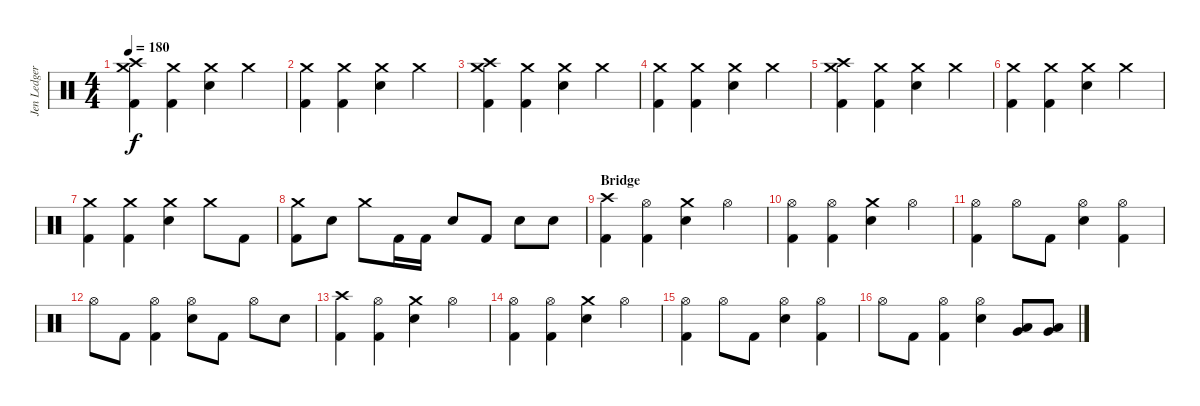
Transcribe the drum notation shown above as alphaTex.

\track ("Jen Ledger" "Jen Ledger") {instrument percussion}
\staff {score}
\articulation defaults
\ts (4 4)
\tempo 180
\clef neutral
\ks c
("Crash high (hit)" "Crash medium (hit)" "Kick (hit) 2").4{dy f} ("Crash medium (hit)" "Kick (hit) 2").4 ("Crash medium (hit)" "Electric Snare (hit)").4 "Crash medium (hit)".4 |
("Crash medium (hit)" "Kick (hit) 2").4 ("Crash medium (hit)" "Kick (hit) 2").4 ("Crash medium (hit)" "Electric Snare (hit)").4 "Crash medium (hit)".4 |
("Crash high (hit)" "Crash medium (hit)" "Kick (hit) 2").4 ("Crash medium (hit)" "Kick (hit) 2").4 ("Crash medium (hit)" "Electric Snare (hit)").4 "Crash medium (hit)".4 |
("Crash medium (hit)" "Kick (hit) 2").4 ("Crash medium (hit)" "Kick (hit) 2").4 ("Crash medium (hit)" "Electric Snare (hit)").4 "Crash medium (hit)".4 |
("Crash high (hit)" "Crash medium (hit)" "Kick (hit) 2").4 ("Crash medium (hit)" "Kick (hit) 2").4 ("Crash medium (hit)" "Electric Snare (hit)").4 "Crash medium (hit)".4 |
("Crash medium (hit)" "Kick (hit) 2").4 ("Crash medium (hit)" "Kick (hit) 2").4 ("Crash medium (hit)" "Electric Snare (hit)").4 "Crash medium (hit)".4 |
("Crash medium (hit)" "Kick (hit) 2").4 ("Crash medium (hit)" "Kick (hit) 2").4 ("Crash medium (hit)" "Electric Snare (hit)").4 "Crash medium (hit)".8 "Kick (hit) 2".8 |
("Crash medium (hit)" "Kick (hit) 2").8 "Electric Snare (hit)".8 "Crash medium (hit)".8 "Kick (hit) 2".16 "Kick (hit) 2".16 "Electric Snare (hit)".8 "Kick (hit) 2".8 "Electric Snare (hit)".8 "Electric Snare (hit)".8 |
\section ("" "Bridge")
("Crash high (hit)" "Kick (hit) 2").4 ("Hi-Hat (open)" "Kick (hit) 2").4 ("Crash medium (hit)" "Electric Snare (hit)").4 "Hi-Hat (open)".4 |
("Hi-Hat (open)" "Kick (hit) 2").4 ("Hi-Hat (open)" "Kick (hit) 2").4 ("Crash medium (hit)" "Electric Snare (hit)").4 "Hi-Hat (open)".4 |
("Hi-Hat (open)" "Kick (hit) 2").4 "Hi-Hat (open)".8 "Kick (hit) 2".8 ("Hi-Hat (open)" "Electric Snare (hit)").4 ("Hi-Hat (open)" "Kick (hit) 2").4 |
"Hi-Hat (open)".8 "Kick (hit) 2".8 ("Hi-Hat (open)" "Kick (hit) 2").4 ("Hi-Hat (open)" "Electric Snare (hit)").8 "Kick (hit) 2".8 "Hi-Hat (open)".8 "Electric Snare (hit)".8 |
("Crash high (hit)" "Kick (hit) 2").4 ("Hi-Hat (open)" "Kick (hit) 2").4 ("Crash medium (hit)" "Electric Snare (hit)").4 "Hi-Hat (open)".4 |
("Hi-Hat (open)" "Kick (hit) 2").4 ("Hi-Hat (open)" "Kick (hit) 2").4 ("Crash medium (hit)" "Electric Snare (hit)").4 "Hi-Hat (open)".4 |
("Hi-Hat (open)" "Kick (hit) 2").4 "Hi-Hat (open)".8 "Kick (hit) 2".8 ("Hi-Hat (open)" "Electric Snare (hit)").4 ("Hi-Hat (open)" "Kick (hit) 2").4 |
"Hi-Hat (open)".8 "Kick (hit) 2".8 ("Hi-Hat (open)" "Kick (hit) 2").4 ("Hi-Hat (open)" "Electric Snare (hit)").4 ("Very Low Tom (hit)" "Low Floor Tom (hit)").8 ("Very Low Tom (hit)" "Low Floor Tom (hit)").8
